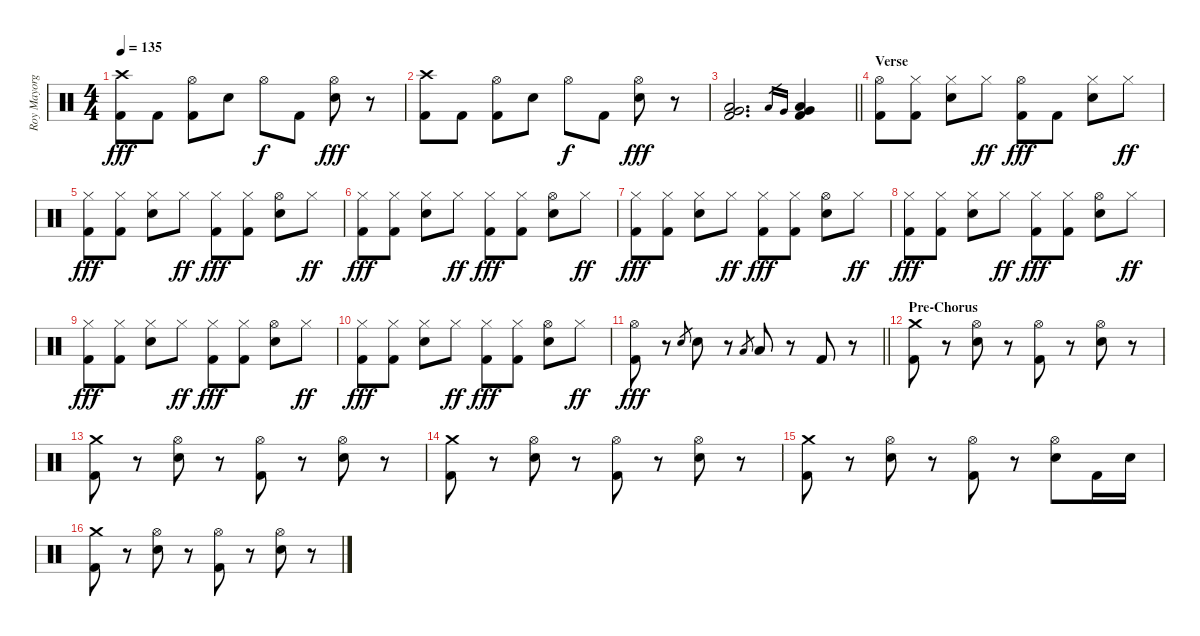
\track ("Roy Mayorga" "Roy Mayorg") {instrument percussion}
\staff {score}
\articulation defaults
\ts (4 4)
\tempo 135
\clef neutral
\ks c
("Crash high (hit)" "Kick (hit) 2").8{dy fff} "Kick (hit) 2".8 ("Hi-Hat (open)" "Kick (hit) 2").8 "Electric Snare (hit)".8 "Hi-Hat (open)".8{dy f} "Kick (hit) 2".8 ("Hi-Hat (open)" "Electric Snare (hit)").8{dy fff} r.8 |
("Crash high (hit)" "Kick (hit) 2").8 "Kick (hit) 2".8 ("Hi-Hat (open)" "Kick (hit) 2").8 "Electric Snare (hit)".8 "Hi-Hat (open)".8{dy f} "Kick (hit) 2".8 ("Hi-Hat (open)" "Electric Snare (hit)").8{dy fff} r.8 |
\barLineRight lightlight
("Low Floor Tom (hit)" "Very Low Tom (hit)" "Kick (hit) 2").2{d} "Low Floor Tom (hit)".16{gr} "Very Low Tom (hit)".16{gr} ("Low Floor Tom (hit)" "Very Low Tom (hit)" "Kick (hit) 2").4 |
\section ("" "Verse")
("Hi-Hat (open)" "Kick (hit) 2").8 ("Hi-Hat (closed)" "Kick (hit) 2").8 ("Hi-Hat (closed)" "Electric Snare (hit)").8 "Hi-Hat (closed)".8{dy ff} ("Hi-Hat (open)" "Kick (hit) 2").8{dy fff} "Kick (hit) 2".8 ("Hi-Hat (closed)" "Electric Snare (hit)").8 "Hi-Hat (closed)".8{dy ff} |
("Hi-Hat (closed)" "Kick (hit) 2").8{dy fff} ("Hi-Hat (closed)" "Kick (hit) 2").8 ("Hi-Hat (closed)" "Electric Snare (hit)").8 "Hi-Hat (closed)".8{dy ff} ("Hi-Hat (closed)" "Kick (hit) 2").8{dy fff} ("Hi-Hat (closed)" "Kick (hit) 2").8 ("Hi-Hat (open)" "Electric Snare (hit)").8 "Hi-Hat (closed)".8{dy ff} |
("Hi-Hat (closed)" "Kick (hit) 2").8{dy fff} ("Hi-Hat (closed)" "Kick (hit) 2").8 ("Hi-Hat (closed)" "Electric Snare (hit)").8 "Hi-Hat (closed)".8{dy ff} ("Hi-Hat (closed)" "Kick (hit) 2").8{dy fff} ("Hi-Hat (closed)" "Kick (hit) 2").8 ("Hi-Hat (open)" "Electric Snare (hit)").8 "Hi-Hat (closed)".8{dy ff} |
("Hi-Hat (closed)" "Kick (hit) 2").8{dy fff} ("Hi-Hat (closed)" "Kick (hit) 2").8 ("Hi-Hat (closed)" "Electric Snare (hit)").8 "Hi-Hat (closed)".8{dy ff} ("Hi-Hat (closed)" "Kick (hit) 2").8{dy fff} ("Hi-Hat (closed)" "Kick (hit) 2").8 ("Hi-Hat (open)" "Electric Snare (hit)").8 "Hi-Hat (closed)".8{dy ff} |
("Hi-Hat (closed)" "Kick (hit) 2").8{dy fff} ("Hi-Hat (closed)" "Kick (hit) 2").8 ("Hi-Hat (closed)" "Electric Snare (hit)").8 "Hi-Hat (closed)".8{dy ff} ("Hi-Hat (closed)" "Kick (hit) 2").8{dy fff} ("Hi-Hat (closed)" "Kick (hit) 2").8 ("Hi-Hat (open)" "Electric Snare (hit)").8 "Hi-Hat (closed)".8{dy ff} |
("Hi-Hat (closed)" "Kick (hit) 2").8{dy fff} ("Hi-Hat (closed)" "Kick (hit) 2").8 ("Hi-Hat (closed)" "Electric Snare (hit)").8 "Hi-Hat (closed)".8{dy ff} ("Hi-Hat (closed)" "Kick (hit) 2").8{dy fff} ("Hi-Hat (closed)" "Kick (hit) 2").8 ("Hi-Hat (open)" "Electric Snare (hit)").8 "Hi-Hat (closed)".8{dy ff} |
("Hi-Hat (closed)" "Kick (hit) 2").8{dy fff} ("Hi-Hat (closed)" "Kick (hit) 2").8 ("Hi-Hat (closed)" "Electric Snare (hit)").8 "Hi-Hat (closed)".8{dy ff} ("Hi-Hat (closed)" "Kick (hit) 2").8{dy fff} ("Hi-Hat (closed)" "Kick (hit) 2").8 ("Hi-Hat (open)" "Electric Snare (hit)").8 "Hi-Hat (closed)".8{dy ff} |
\barLineRight lightlight
("Hi-Hat (open)" "Kick (hit) 2").8{dy fff} r.8 "Electric Snare (hit)".8{gr} "Electric Snare (hit)".8 r.8 "Low Tom (hit)".8{gr} "Low Tom (hit)".8 r.8 "Kick (hit) 2".8 r.8 |
\section ("" "Pre-Chorus")
("Crash medium (hit)" "Kick (hit) 2").8 r.8 ("Hi-Hat (open)" "Electric Snare (hit)").8 r.8 ("Hi-Hat (open)" "Kick (hit) 2").8 r.8 ("Hi-Hat (open)" "Electric Snare (hit)").8 r.8 |
("Crash medium (hit)" "Kick (hit) 2").8 r.8 ("Hi-Hat (open)" "Electric Snare (hit)").8 r.8 ("Hi-Hat (open)" "Kick (hit) 2").8 r.8 ("Hi-Hat (open)" "Electric Snare (hit)").8 r.8 |
("Crash medium (hit)" "Kick (hit) 2").8 r.8 ("Hi-Hat (open)" "Electric Snare (hit)").8 r.8 ("Hi-Hat (open)" "Kick (hit) 2").8 r.8 ("Hi-Hat (open)" "Electric Snare (hit)").8 r.8 |
("Crash medium (hit)" "Kick (hit) 2").8 r.8 ("Hi-Hat (open)" "Electric Snare (hit)").8 r.8 ("Hi-Hat (open)" "Kick (hit) 2").8 r.8 ("Hi-Hat (open)" "Electric Snare (hit)").8 "Kick (hit) 2".16 "Electric Snare (hit)".16 |
("Crash medium (hit)" "Kick (hit) 2").8 r.8 ("Hi-Hat (open)" "Electric Snare (hit)").8 r.8 ("Hi-Hat (open)" "Kick (hit) 2").8 r.8 ("Hi-Hat (open)" "Electric Snare (hit)").8 r.8
